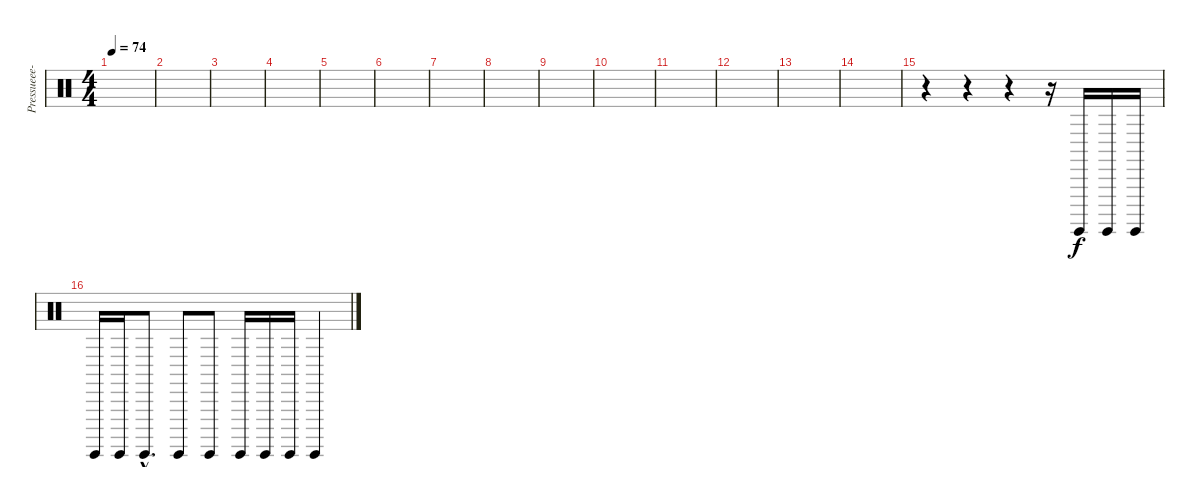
\track ("" "Pressueee-") {instrument percussion}
\staff {score}
\articulation defaults
\ts (4 4)
\tempo 74
\clef neutral
\ks c
|
|
|
|
|
|
|
|
|
|
|
|
|
|
r.4 r.4 r.4 r.16 "Surdo (hit)".16 "Surdo (hit)".16 "Surdo (hit)".16 |
"Surdo (hit)".16 "Surdo (hit)".16 "Surdo (hit)"{hac}.8{d} "Surdo (hit)".8 "Surdo (hit)".8 "Surdo (hit)".16 "Surdo (hit)".16 "Surdo (hit)".16 "Surdo (hit)".4
